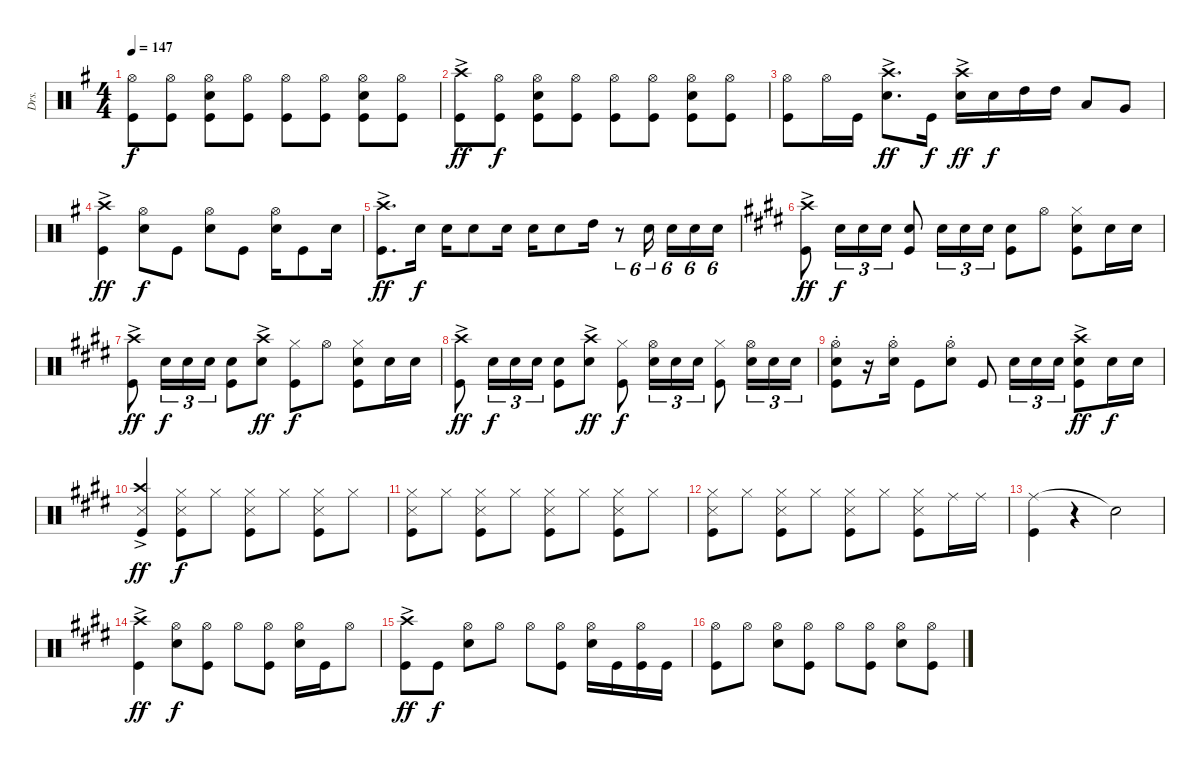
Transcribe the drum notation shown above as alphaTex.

\track ("Drs." "Drs.") {instrument percussion}
\staff {score}
\articulation defaults
\ts (4 4)
\tempo 147
\clef neutral
\ks g
("Hi-Hat (open)" "Kick (hit)").8{dy f} ("Hi-Hat (open)" "Kick (hit)").8 ("Hi-Hat (open)" "Snare (hit) 2" "Kick (hit)").8 ("Hi-Hat (open)" "Kick (hit)").8 ("Hi-Hat (open)" "Kick (hit)").8 ("Hi-Hat (open)" "Kick (hit)").8 ("Hi-Hat (open)" "Snare (hit) 2" "Kick (hit)").8 ("Hi-Hat (open)" "Kick (hit)").8 |
("Crash high (hit)"{ac} "Kick (hit)").8{dy ff} ("Hi-Hat (open)" "Kick (hit)").8{dy f} ("Hi-Hat (open)" "Snare (hit) 2" "Kick (hit)").8 ("Hi-Hat (open)" "Kick (hit)").8 ("Hi-Hat (open)" "Kick (hit)").8 ("Hi-Hat (open)" "Kick (hit)").8 ("Hi-Hat (open)" "Snare (hit) 2" "Kick (hit)").8 ("Hi-Hat (open)" "Kick (hit)").8 |
("Hi-Hat (open)" "Kick (hit)").8 "Hi-Hat (open)".16 "Kick (hit)".16 ("Crash high (hit)"{ac} "Snare (hit) 2").8{d dy ff} "Kick (hit)".16{dy f} ("Crash high (hit)"{ac} "Snare (hit) 2").16{dy ff} "Snare (hit) 2".16{dy f} "High Tom (hit)".16 "High Tom (hit)".16 "Low Tom (hit)".8 "Very Low Tom (hit)".8 |
("Crash high (hit)"{ac} "Kick (hit)").4{dy ff} ("Hi-Hat (open)" "Snare (hit) 2").8{dy f} "Kick (hit)".8 ("Hi-Hat (open)" "Snare (hit) 2").8 "Kick (hit)".8 ("Hi-Hat (open)" "Snare (hit) 2").16 "Kick (hit)".8 "Snare (hit) 2".16 |
("Crash high (hit)"{ac} "Kick (hit)").8{d dy ff} "Snare (hit) 2".16{dy f} "Snare (hit) 2".16 "Snare (hit) 2".8 "Snare (hit) 2".16 "Snare (hit) 2".16 "Snare (hit) 2".8 "High Tom (hit)".16 r.8{tu (6 4)} "Snare (hit) 2".16{tu (6 4)} "Snare (hit) 2".16{tu (6 4)} "Snare (hit) 2".16{tu (6 4)} "Snare (hit) 2".16{tu (6 4)} |
\ks c#minor
("Crash high (hit)"{ac} "Kick (hit)").8{dy ff} "Snare (hit) 2".16{tu (3 2) dy f} "Snare (hit) 2".16{tu (3 2)} "Snare (hit) 2".16{tu (3 2)} ("Snare (hit) 2" "Kick (hit)").8 "Snare (hit) 2".16{tu (3 2)} "Snare (hit) 2".16{tu (3 2)} "Snare (hit) 2".16{tu (3 2)} ("Snare (hit) 2" "Kick (hit)").8 "Hi-Hat (open)".8 ("Hi-Hat (closed)" "Snare (hit) 2" "Kick (hit)").8 "Snare (hit) 2".16 "Snare (hit) 2".16 |
("Crash high (hit)"{ac} "Kick (hit)").8{dy ff} "Snare (hit) 2".16{tu (3 2) dy f} "Snare (hit) 2".16{tu (3 2)} "Snare (hit) 2".16{tu (3 2)} ("Snare (hit) 2" "Kick (hit)").8 ("Crash high (hit)"{ac} "Snare (hit) 2").8{dy ff} ("Hi-Hat (closed)" "Kick (hit)").8{dy f} "Hi-Hat (open)".8 ("Hi-Hat (closed)" "Snare (hit) 2" "Kick (hit)").8 "Snare (hit) 2".16 "Snare (hit) 2".16 |
("Crash high (hit)"{ac} "Kick (hit)").8{dy ff} "Snare (hit) 2".16{tu (3 2) dy f} "Snare (hit) 2".16{tu (3 2)} "Snare (hit) 2".16{tu (3 2)} ("Snare (hit) 2" "Kick (hit)").8 ("Crash high (hit)"{ac} "Snare (hit) 2").8{dy ff} ("Hi-Hat (closed)" "Kick (hit)").8{dy f} ("Hi-Hat (open)" "Snare (hit) 2").16{tu (3 2)} "Snare (hit) 2".16{tu (3 2)} "Snare (hit) 2".16{tu (3 2)} ("Hi-Hat (closed)" "Kick (hit)").8 ("Hi-Hat (open)" "Snare (hit) 2").16{tu (3 2)} "Snare (hit) 2".16{tu (3 2)} "Snare (hit) 2".16{tu (3 2)} |
("Hi-Hat (open)"{st} "Snare (hit) 2"{st} "Kick (hit)"{st}).8 r.16 ("Hi-Hat (open)"{st} "Snare (hit) 2"{st}).16 "Kick (hit)".8 ("Hi-Hat (open)"{st} "Snare (hit) 2"{st}).8 "Kick (hit)".8 "Snare (hit) 2".16{tu (3 2)} "Snare (hit) 2".16{tu (3 2)} "Snare (hit) 2".16{tu (3 2)} ("Crash high (hit)"{ac} "Snare (hit) 2" "Kick (hit)").8{dy ff} "Snare (hit) 2".16{dy f} "Snare (hit) 2".16 |
("Crash high (hit)"{ac} "Snare (side stick) 3" "Kick (hit)").4{dy ff} ("Hi-Hat (closed)" "Snare (side stick) 3" "Kick (hit)").8{dy f} "Hi-Hat (closed)".8 ("Hi-Hat (closed)" "Snare (side stick) 3" "Kick (hit)").8 "Hi-Hat (closed)".8 ("Hi-Hat (closed)" "Snare (side stick) 3" "Kick (hit)").8 "Hi-Hat (closed)".8 |
("Hi-Hat (closed)" "Snare (side stick) 3" "Kick (hit)").8 "Hi-Hat (closed)".8 ("Hi-Hat (closed)" "Snare (side stick) 3" "Kick (hit)").8 "Hi-Hat (closed)".8 ("Hi-Hat (closed)" "Snare (side stick) 3" "Kick (hit)").8 "Hi-Hat (closed)".8 ("Hi-Hat (closed)" "Snare (side stick) 3" "Kick (hit)").8 "Hi-Hat (closed)".8 |
("Hi-Hat (closed)" "Snare (side stick) 3" "Kick (hit)").8 "Hi-Hat (closed)".8 ("Hi-Hat (closed)" "Snare (side stick) 3" "Kick (hit)").8 "Hi-Hat (closed)".8 ("Hi-Hat (closed)" "Snare (side stick) 3" "Kick (hit)").8 "Hi-Hat (closed)".8 ("Hi-Hat (closed)" "Snare (side stick) 3" "Kick (hit)").8 "Ride (middle)".16 "Ride (middle)".16 |
("Ride (middle)" "Kick (hit)").4 r.4 "Snare (hit)"{t}.2 |
("Crash high (hit)"{ac} "Kick (hit)").4{dy ff} ("Hi-Hat (open)" "Snare (hit) 2").8{dy f} ("Hi-Hat (open)" "Kick (hit)").8 "Hi-Hat (open)".8 ("Hi-Hat (open)" "Kick (hit)").8 ("Hi-Hat (open)" "Snare (hit) 2").16 "Kick (hit)".16 "Hi-Hat (open)".8 |
("Crash high (hit)"{ac} "Kick (hit)").8{dy ff} "Kick (hit)".8{dy f} ("Hi-Hat (open)" "Snare (hit) 2").8 "Hi-Hat (open)".8 "Hi-Hat (open)".8 ("Hi-Hat (open)" "Kick (hit)").8 ("Hi-Hat (open)" "Snare (hit) 2").16 "Kick (hit)".16 ("Hi-Hat (open)" "Kick (hit)").16 "Kick (hit)".16 |
("Hi-Hat (open)" "Kick (hit)").8 "Hi-Hat (open)".8 ("Hi-Hat (open)" "Snare (hit) 2").8 ("Hi-Hat (open)" "Kick (hit)").8 "Hi-Hat (open)".8 ("Hi-Hat (open)" "Kick (hit)").8 ("Hi-Hat (open)" "Snare (hit) 2").8 ("Hi-Hat (open)" "Kick (hit)").8
